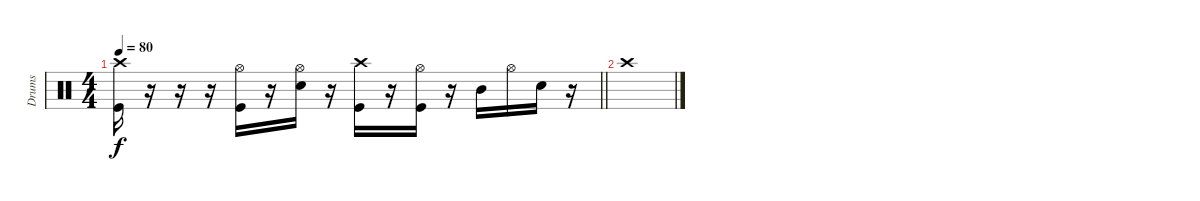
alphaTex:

\track ("Drums" "Drums") {instrument percussion}
\staff {score}
\articulation defaults
\ts (4 4)
\tempo 80
\clef neutral
\barLineRight lightlight
\ks c
("Crash high (hit)" "Kick (hit)").16{dy f} r.16 r.16 r.16 ("Hi-Hat (open)" "Kick (hit)").16 r.16 ("Hi-Hat (open)" "Snare (hit) 2").16 r.16 ("Crash high (hit)" "Kick (hit)").16 r.16 ("Hi-Hat (open)" "Kick (hit)").16 r.16 "Mid Tom (hit)".16 "Hi-Hat (open)".16 "Snare (hit) 2".16 r.16 |
"Crash high (hit)".1
